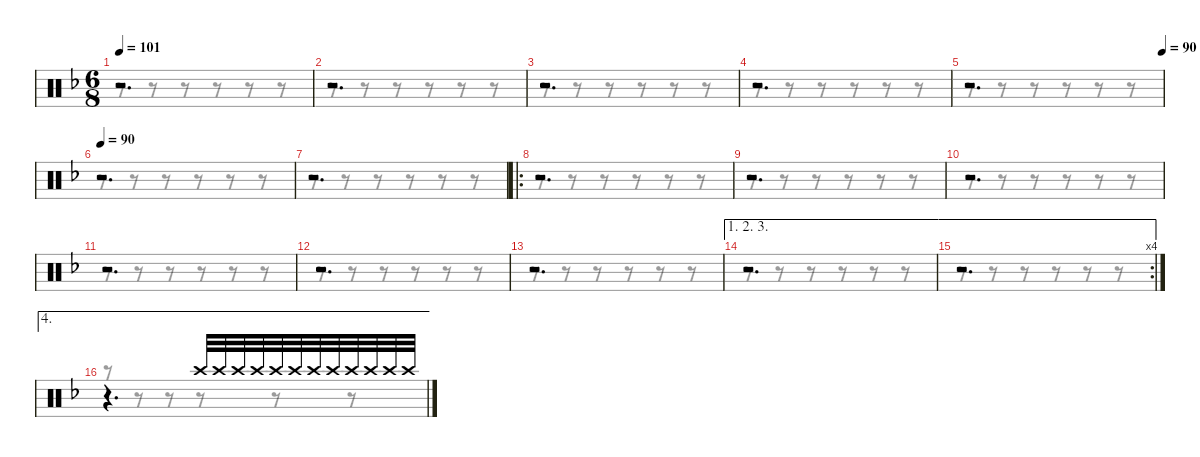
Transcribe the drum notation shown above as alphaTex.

\defaultSystemsLayout 4
\hideDynamics
\bracketExtendMode nobrackets
\singleTrackTrackNamePolicy hidden
\multiTrackTrackNamePolicy hidden
\otherSystemsTrackNameOrientation horizontal
\track ("M. Lopez" "drm.") {instrument percussion}
\staff {score}
\articulation defaults
\voice
\ts (6 8)
\tempo 101
\clef neutral
\ks dminor
r.2{d dy mf beam Up} |
r.2{d beam Up} |
r.2{d beam Up} |
r.2{d beam Up} |
\tempo (90 1)
r.2{d beam Up} |
\tempo 90
r.2{d beam Up} |
r.2{d beam Up} |
\ro
r.2{d beam Up} |
r.2{d beam Up} |
r.2{d beam Up} |
r.2{d beam Up} |
r.2{d beam Up} |
r.2{d beam Up} |
\ae (1 2 3)
r.2{d beam Up} |
\ae (1 2 3)
\rc 4
r.2{d beam Up} |
\ae 4
r.4{d beam Up} "Crash high (hit)"{acc forcenatural}.32{dy p beam Up} "Crash high (hit)"{acc forcenatural}.32{beam Up} "Crash high (hit)"{acc forcenatural}.32{beam Up} "Crash high (hit)"{acc forcenatural}.32{beam Up} "Crash high (hit)"{acc forcenatural}.32{beam Up} "Crash high (hit)"{acc forcenatural}.32{beam Up} "Crash high (hit)"{acc forcenatural}.32{beam Up} "Crash high (hit)"{acc forcenatural}.32{beam Up} "Crash high (hit)"{acc forcenatural}.32{beam Up} "Crash high (hit)"{acc forcenatural}.32{beam Up} "Crash high (hit)"{acc forcenatural}.32{beam Up} "Crash high (hit)"{acc forcenatural}.32{beam Up}
\voice
\clef neutral
\ottava regular
\simile none
\ks dminor
r.8{dy mf beam Down} r.8{beam Down} r.8{beam Down} r.8{beam Down} r.8{beam Down} r.8{beam Down} |
r.8{beam Down} r.8{beam Down} r.8{beam Down} r.8{beam Down} r.8{beam Down} r.8{beam Down} |
r.8{beam Down} r.8{beam Down} r.8{beam Down} r.8{beam Down} r.8{beam Down} r.8{beam Down} |
r.8{beam Down} r.8{beam Down} r.8{beam Down} r.8{beam Down} r.8{beam Down} r.8{beam Down} |
r.8{beam Down} r.8{beam Down} r.8{beam Down} r.8{beam Down} r.8{beam Down} r.8{beam Down} |
r.8{beam Down} r.8{beam Down} r.8{beam Down} r.8{beam Down} r.8{beam Down} r.8{beam Down} |
r.8{beam Down} r.8{beam Down} r.8{beam Down} r.8{beam Down} r.8{beam Down} r.8{beam Down} |
r.8{beam Down} r.8{beam Down} r.8{beam Down} r.8{beam Down} r.8{beam Down} r.8{beam Down} |
r.8{beam Down} r.8{beam Down} r.8{beam Down} r.8{beam Down} r.8{beam Down} r.8{beam Down} |
r.8{beam Down} r.8{beam Down} r.8{beam Down} r.8{beam Down} r.8{beam Down} r.8{beam Down} |
r.8{beam Down} r.8{beam Down} r.8{beam Down} r.8{beam Down} r.8{beam Down} r.8{beam Down} |
r.8{beam Down} r.8{beam Down} r.8{beam Down} r.8{beam Down} r.8{beam Down} r.8{beam Down} |
r.8{beam Down} r.8{beam Down} r.8{beam Down} r.8{beam Down} r.8{beam Down} r.8{beam Down} |
r.8{beam Down} r.8{beam Down} r.8{beam Down} r.8{beam Down} r.8{beam Down} r.8{beam Down} |
r.8{beam Down} r.8{beam Down} r.8{beam Down} r.8{beam Down} r.8{beam Down} r.8{beam Down} |
r.8{beam Down} r.8{beam Down} r.8{beam Down} r.8{beam Down} r.8{beam Down} r.8{beam Down}
